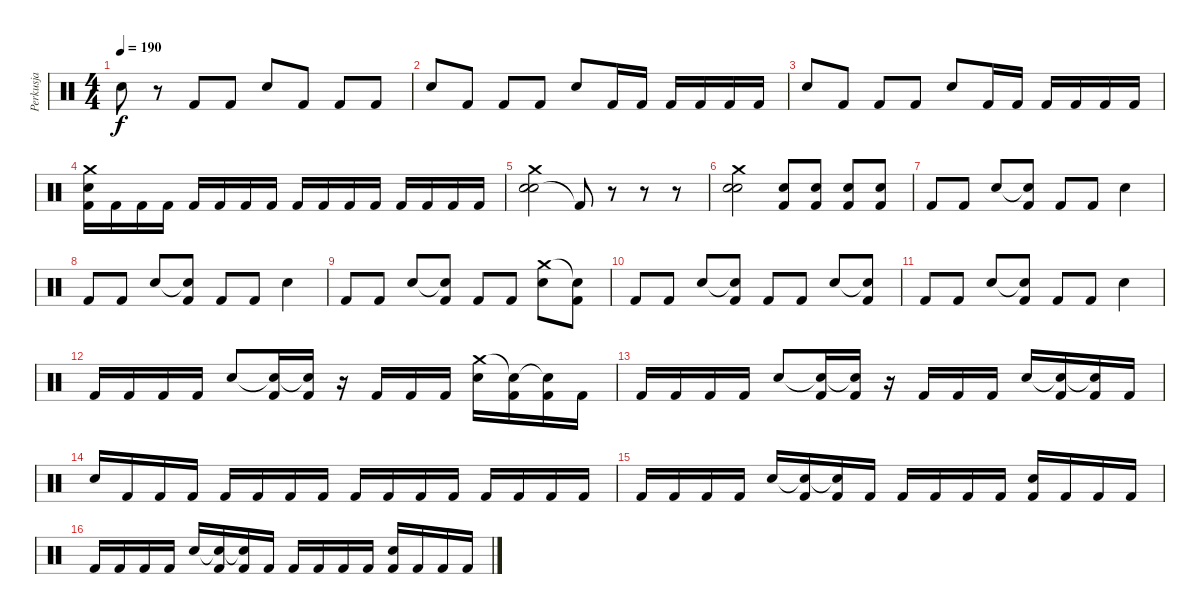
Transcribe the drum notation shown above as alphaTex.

\track ("Perkusja" "Perkusja") {instrument percussion}
\staff {score}
\articulation defaults
\ts (4 4)
\tempo 190
\clef neutral
\ks c "Electric Snare (hit)".8{dy f}
r.8 "Kick (hit) 2".8 "Kick (hit) 2".8 "Electric Snare (hit)".8 "Kick (hit) 2".8 "Kick (hit) 2".8 "Kick (hit) 2".8 |
"Electric Snare (hit)".8 "Kick (hit) 2".8 "Kick (hit) 2".8 "Kick (hit) 2".8 "Electric Snare (hit)".8 "Kick (hit) 2".16 "Kick (hit) 2".16 "Kick (hit) 2".16 "Kick (hit) 2".16 "Kick (hit) 2".16 "Kick (hit) 2".16 |
"Electric Snare (hit)".8 "Kick (hit) 2".8 "Kick (hit) 2".8 "Kick (hit) 2".8 "Electric Snare (hit)".8 "Kick (hit) 2".16 "Kick (hit) 2".16 "Kick (hit) 2".16 "Kick (hit) 2".16 "Kick (hit) 2".16 "Kick (hit) 2".16 |
("Crash medium (hit)" "Electric Snare (hit)" "Kick (hit) 2").16 "Kick (hit) 2".16 "Kick (hit) 2".16 "Kick (hit) 2".16 "Kick (hit) 2".16 "Kick (hit) 2".16 "Kick (hit) 2".16 "Kick (hit) 2".16 "Kick (hit) 2".16 "Kick (hit) 2".16 "Kick (hit) 2".16 "Kick (hit) 2".16 "Kick (hit) 2".16 "Kick (hit) 2".16 "Kick (hit) 2".16 "Kick (hit) 2".16 |
("Snare (hit) 2" "Electric Snare (hit)" "Crash medium (hit)").2 "Kick (hit) 2"{t}.8 r.8 r.8 r.8 |
("Snare (hit) 2" "Electric Snare (hit)" "Crash medium (hit)").2 ("Electric Snare (hit)" "Kick (hit) 2").8 ("Electric Snare (hit)" "Kick (hit) 2").8 ("Electric Snare (hit)" "Kick (hit) 2").8 ("Electric Snare (hit)" "Kick (hit) 2").8 |
"Kick (hit) 2".8 "Kick (hit) 2".8 "Electric Snare (hit)".8 ("Snare (hit)"{t} "Kick (hit) 2").8 "Kick (hit) 2".8 "Kick (hit) 2".8 "Electric Snare (hit)".4 |
"Kick (hit) 2".8 "Kick (hit) 2".8 "Electric Snare (hit)".8 ("Snare (hit)"{t} "Kick (hit) 2").8 "Kick (hit) 2".8 "Kick (hit) 2".8 "Electric Snare (hit)".4 |
"Kick (hit) 2".8 "Kick (hit) 2".8 "Electric Snare (hit)".8 ("Snare (hit)"{t} "Kick (hit) 2").8 "Kick (hit) 2".8 "Kick (hit) 2".8 ("Crash medium (hit)" "Electric Snare (hit)").8 ("Snare (hit)"{t} "Kick (hit) 2").8 |
"Kick (hit) 2".8 "Kick (hit) 2".8 "Electric Snare (hit)".8 ("Snare (hit)"{t} "Kick (hit) 2").8 "Kick (hit) 2".8 "Kick (hit) 2".8 "Electric Snare (hit)".8 ("Snare (hit)"{t} "Kick (hit) 2").8 |
"Kick (hit) 2".8 "Kick (hit) 2".8 "Electric Snare (hit)".8 ("Snare (hit)"{t} "Kick (hit) 2").8 "Kick (hit) 2".8 "Kick (hit) 2".8 "Electric Snare (hit)".4 |
"Kick (hit) 2".16 "Kick (hit) 2".16 "Kick (hit) 2".16 "Kick (hit) 2".16 "Electric Snare (hit)".8 ("Snare (hit)"{t} "Kick (hit) 2").16 ("Snare (hit)"{t} "Kick (hit) 2").16 r.16 "Kick (hit) 2".16 "Kick (hit) 2".16 "Kick (hit) 2".16 ("Crash medium (hit)" "Electric Snare (hit)").16 ("Snare (hit)"{t} "Kick (hit) 2").16 ("Snare (hit)"{t} "Kick (hit) 2").16 "Kick (hit) 2".16 |
"Kick (hit) 2".16 "Kick (hit) 2".16 "Kick (hit) 2".16 "Kick (hit) 2".16 "Electric Snare (hit)".8 ("Snare (hit)"{t} "Kick (hit) 2").16 ("Snare (hit)"{t} "Kick (hit) 2").16 r.16 "Kick (hit) 2".16 "Kick (hit) 2".16 "Kick (hit) 2".16 "Electric Snare (hit)".16 ("Snare (hit)"{t} "Kick (hit) 2").16 ("Snare (hit)"{t} "Kick (hit) 2").16 "Kick (hit) 2".16 |
"Electric Snare (hit)".16 "Kick (hit) 2".16 "Kick (hit) 2".16 "Kick (hit) 2".16 "Kick (hit) 2".16 "Kick (hit) 2".16 "Kick (hit) 2".16 "Kick (hit) 2".16 "Kick (hit) 2".16 "Kick (hit) 2".16 "Kick (hit) 2".16 "Kick (hit) 2".16 "Kick (hit) 2".16 "Kick (hit) 2".16 "Kick (hit) 2".16 "Kick (hit) 2".16 |
"Kick (hit) 2".16{balance 8} "Kick (hit) 2".16 "Kick (hit) 2".16 "Kick (hit) 2".16 "Electric Snare (hit)".16 ("Snare (hit)"{t} "Kick (hit) 2").16 ("Snare (hit)"{t} "Kick (hit) 2").16 "Kick (hit) 2".16 "Kick (hit) 2".16 "Kick (hit) 2".16 "Kick (hit) 2".16 "Kick (hit) 2".16 ("Electric Snare (hit)" "Kick (hit) 2").16 "Kick (hit) 2".16 "Kick (hit) 2".16 "Kick (hit) 2".16 |
"Kick (hit) 2".16 "Kick (hit) 2".16 "Kick (hit) 2".16 "Kick (hit) 2".16 "Electric Snare (hit)".16 ("Snare (hit)"{t} "Kick (hit) 2").16 ("Snare (hit)"{t} "Kick (hit) 2").16 "Kick (hit) 2".16 "Kick (hit) 2".16 "Kick (hit) 2".16 "Kick (hit) 2".16 "Kick (hit) 2".16 ("Electric Snare (hit)" "Kick (hit) 2").16 "Kick (hit) 2".16 "Kick (hit) 2".16 "Kick (hit) 2".16
